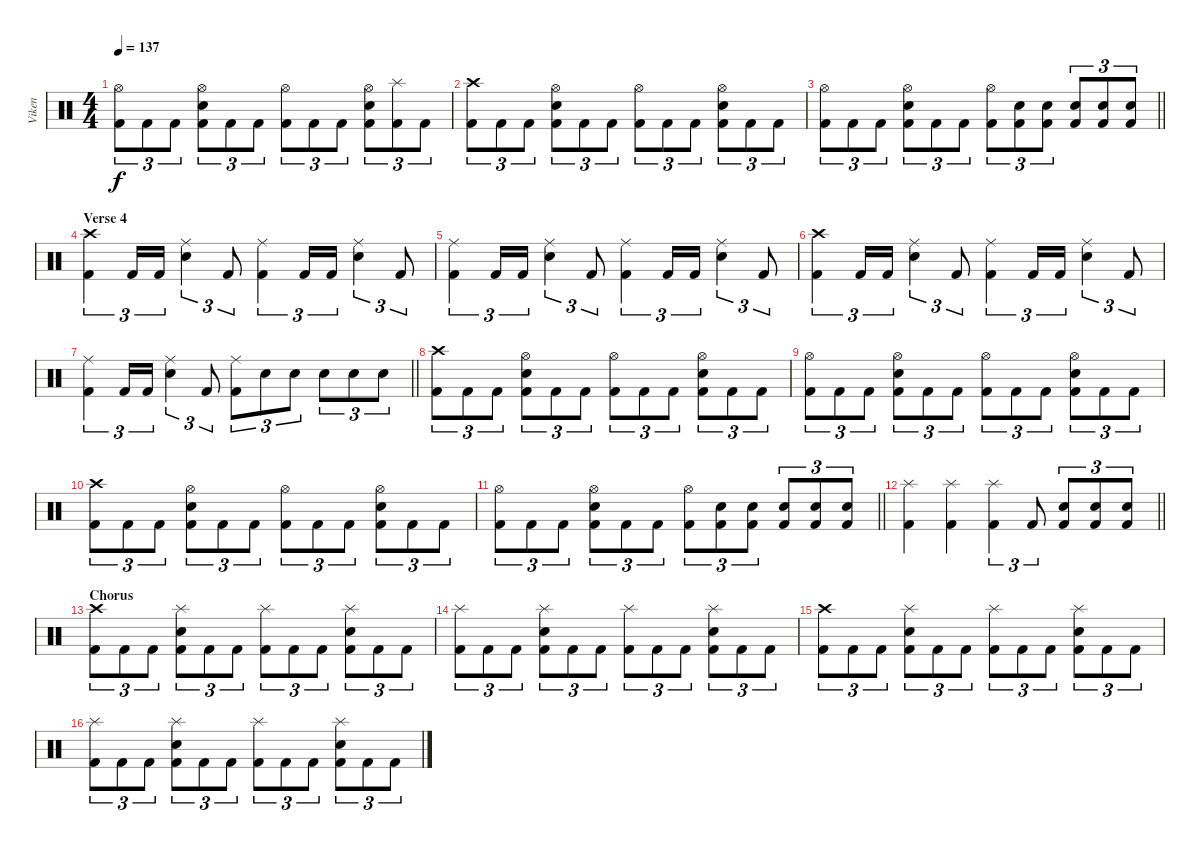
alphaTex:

\track ("Viken" "Viken") {instrument percussion}
\staff {score}
\articulation defaults
\ts (4 4)
\tempo 137
\clef neutral
\ks c
("Hi-Hat (open)" "Kick (hit) 2").8{tu (3 2) dy f} "Kick (hit) 2".8{tu (3 2)} "Kick (hit) 2".8{tu (3 2)} ("Hi-Hat (open)" "Electric Snare (hit)" "Kick (hit) 2").8{tu (3 2)} "Kick (hit) 2".8{tu (3 2)} "Kick (hit) 2".8{tu (3 2)} ("Hi-Hat (open)" "Kick (hit) 2").8{tu (3 2)} "Kick (hit) 2".8{tu (3 2)} "Kick (hit) 2".8{tu (3 2)} ("Hi-Hat (open)" "Electric Snare (hit)" "Kick (hit) 2").8{tu (3 2)} ("Splash (hit)" "Kick (hit) 2").8{tu (3 2)} "Kick (hit) 2".8{tu (3 2)} |
("Crash high (hit)" "Kick (hit) 2").8{tu (3 2)} "Kick (hit) 2".8{tu (3 2)} "Kick (hit) 2".8{tu (3 2)} ("Hi-Hat (open)" "Electric Snare (hit)" "Kick (hit) 2").8{tu (3 2)} "Kick (hit) 2".8{tu (3 2)} "Kick (hit) 2".8{tu (3 2)} ("Hi-Hat (open)" "Kick (hit) 2").8{tu (3 2)} "Kick (hit) 2".8{tu (3 2)} "Kick (hit) 2".8{tu (3 2)} ("Hi-Hat (open)" "Electric Snare (hit)" "Kick (hit) 2").8{tu (3 2)} "Kick (hit) 2".8{tu (3 2)} "Kick (hit) 2".8{tu (3 2)} |
\barLineRight lightlight
("Hi-Hat (open)" "Kick (hit) 2").8{tu (3 2)} "Kick (hit) 2".8{tu (3 2)} "Kick (hit) 2".8{tu (3 2)} ("Hi-Hat (open)" "Electric Snare (hit)" "Kick (hit) 2").8{tu (3 2)} "Kick (hit) 2".8{tu (3 2)} "Kick (hit) 2".8{tu (3 2)} ("Hi-Hat (open)" "Kick (hit) 2").8{tu (3 2)} ("Electric Snare (hit)" "Kick (hit) 2").8{tu (3 2)} ("Electric Snare (hit)" "Kick (hit) 2").8{tu (3 2)} ("Electric Snare (hit)" "Kick (hit) 2").8{tu (3 2)} ("Electric Snare (hit)" "Kick (hit) 2").8{tu (3 2)} ("Electric Snare (hit)" "Kick (hit) 2").8{tu (3 2)} |
\section ("" "Verse 4")
("Crash high (hit)" "Kick (hit) 2").4{tu (3 2)} "Kick (hit) 2".16{tu (3 2)} "Kick (hit) 2".16{tu (3 2)} ("Ride (middle)" "Electric Snare (hit)").4{tu (3 2)} "Kick (hit) 2".8{tu (3 2)} ("Ride (middle)" "Kick (hit) 2").4{tu (3 2)} "Kick (hit) 2".16{tu (3 2)} "Kick (hit) 2".16{tu (3 2)} ("Ride (middle)" "Electric Snare (hit)").4{tu (3 2)} "Kick (hit) 2".8{tu (3 2)} |
("Ride (middle)" "Kick (hit) 2").4{tu (3 2)} "Kick (hit) 2".16{tu (3 2)} "Kick (hit) 2".16{tu (3 2)} ("Ride (middle)" "Electric Snare (hit)").4{tu (3 2)} "Kick (hit) 2".8{tu (3 2)} ("Ride (middle)" "Kick (hit) 2").4{tu (3 2)} "Kick (hit) 2".16{tu (3 2)} "Kick (hit) 2".16{tu (3 2)} ("Ride (middle)" "Electric Snare (hit)").4{tu (3 2)} "Kick (hit) 2".8{tu (3 2)} |
("Crash high (hit)" "Kick (hit) 2").4{tu (3 2)} "Kick (hit) 2".16{tu (3 2)} "Kick (hit) 2".16{tu (3 2)} ("Ride (middle)" "Electric Snare (hit)").4{tu (3 2)} "Kick (hit) 2".8{tu (3 2)} ("Ride (middle)" "Kick (hit) 2").4{tu (3 2)} "Kick (hit) 2".16{tu (3 2)} "Kick (hit) 2".16{tu (3 2)} ("Ride (middle)" "Electric Snare (hit)").4{tu (3 2)} "Kick (hit) 2".8{tu (3 2)} |
\barLineRight lightlight
("Ride (middle)" "Kick (hit) 2").4{tu (3 2)} "Kick (hit) 2".16{tu (3 2)} "Kick (hit) 2".16{tu (3 2)} ("Ride (middle)" "Electric Snare (hit)").4{tu (3 2)} "Kick (hit) 2".8{tu (3 2)} ("Ride (middle)" "Kick (hit) 2").8{tu (3 2)} "Electric Snare (hit)".8{tu (3 2)} "Electric Snare (hit)".8{tu (3 2)} "Electric Snare (hit)".8{tu (3 2)} "Electric Snare (hit)".8{tu (3 2)} "Electric Snare (hit)".8{tu (3 2)} |
\section ("" "")
("Crash high (hit)" "Kick (hit) 2").8{tu (3 2)} "Kick (hit) 2".8{tu (3 2)} "Kick (hit) 2".8{tu (3 2)} ("Hi-Hat (open)" "Electric Snare (hit)" "Kick (hit) 2").8{tu (3 2)} "Kick (hit) 2".8{tu (3 2)} "Kick (hit) 2".8{tu (3 2)} ("Hi-Hat (open)" "Kick (hit) 2").8{tu (3 2)} "Kick (hit) 2".8{tu (3 2)} "Kick (hit) 2".8{tu (3 2)} ("Hi-Hat (open)" "Electric Snare (hit)" "Kick (hit) 2").8{tu (3 2)} "Kick (hit) 2".8{tu (3 2)} "Kick (hit) 2".8{tu (3 2)} |
("Hi-Hat (open)" "Kick (hit) 2").8{tu (3 2)} "Kick (hit) 2".8{tu (3 2)} "Kick (hit) 2".8{tu (3 2)} ("Hi-Hat (open)" "Electric Snare (hit)" "Kick (hit) 2").8{tu (3 2)} "Kick (hit) 2".8{tu (3 2)} "Kick (hit) 2".8{tu (3 2)} ("Hi-Hat (open)" "Kick (hit) 2").8{tu (3 2)} "Kick (hit) 2".8{tu (3 2)} "Kick (hit) 2".8{tu (3 2)} ("Hi-Hat (open)" "Electric Snare (hit)" "Kick (hit) 2").8{tu (3 2)} "Kick (hit) 2".8{tu (3 2)} "Kick (hit) 2".8{tu (3 2)} |
("Crash high (hit)" "Kick (hit) 2").8{tu (3 2)} "Kick (hit) 2".8{tu (3 2)} "Kick (hit) 2".8{tu (3 2)} ("Hi-Hat (open)" "Electric Snare (hit)" "Kick (hit) 2").8{tu (3 2)} "Kick (hit) 2".8{tu (3 2)} "Kick (hit) 2".8{tu (3 2)} ("Hi-Hat (open)" "Kick (hit) 2").8{tu (3 2)} "Kick (hit) 2".8{tu (3 2)} "Kick (hit) 2".8{tu (3 2)} ("Hi-Hat (open)" "Electric Snare (hit)" "Kick (hit) 2").8{tu (3 2)} "Kick (hit) 2".8{tu (3 2)} "Kick (hit) 2".8{tu (3 2)} |
\barLineRight lightlight
("Hi-Hat (open)" "Kick (hit) 2").8{tu (3 2)} "Kick (hit) 2".8{tu (3 2)} "Kick (hit) 2".8{tu (3 2)} ("Hi-Hat (open)" "Electric Snare (hit)" "Kick (hit) 2").8{tu (3 2)} "Kick (hit) 2".8{tu (3 2)} "Kick (hit) 2".8{tu (3 2)} ("Hi-Hat (open)" "Kick (hit) 2").8{tu (3 2)} ("Electric Snare (hit)" "Kick (hit) 2").8{tu (3 2)} ("Electric Snare (hit)" "Kick (hit) 2").8{tu (3 2)} ("Electric Snare (hit)" "Kick (hit) 2").8{tu (3 2)} ("Electric Snare (hit)" "Kick (hit) 2").8{tu (3 2)} ("Electric Snare (hit)" "Kick (hit) 2").8{tu (3 2)} |
\barLineRight lightlight
("Splash (hit)" "Kick (hit) 2").4 ("Splash (hit)" "Kick (hit) 2").4 ("Splash (hit)" "Kick (hit) 2").4{tu (3 2)} "Kick (hit) 2".8{tu (3 2)} ("Electric Snare (hit)" "Kick (hit) 2").8{tu (3 2)} ("Electric Snare (hit)" "Kick (hit) 2").8{tu (3 2)} ("Electric Snare (hit)" "Kick (hit) 2").8{tu (3 2)} |
\section ("" "Chorus")
("Crash high (hit)" "Kick (hit) 2").8{tu (3 2)} "Kick (hit) 2".8{tu (3 2)} "Kick (hit) 2".8{tu (3 2)} ("Splash (hit)" "Electric Snare (hit)" "Kick (hit) 2").8{tu (3 2)} "Kick (hit) 2".8{tu (3 2)} "Kick (hit) 2".8{tu (3 2)} ("Splash (hit)" "Kick (hit) 2").8{tu (3 2)} "Kick (hit) 2".8{tu (3 2)} "Kick (hit) 2".8{tu (3 2)} ("Splash (hit)" "Electric Snare (hit)" "Kick (hit) 2").8{tu (3 2)} "Kick (hit) 2".8{tu (3 2)} "Kick (hit) 2".8{tu (3 2)} |
("Splash (hit)" "Kick (hit) 2").8{tu (3 2)} "Kick (hit) 2".8{tu (3 2)} "Kick (hit) 2".8{tu (3 2)} ("Splash (hit)" "Electric Snare (hit)" "Kick (hit) 2").8{tu (3 2)} "Kick (hit) 2".8{tu (3 2)} "Kick (hit) 2".8{tu (3 2)} ("Splash (hit)" "Kick (hit) 2").8{tu (3 2)} "Kick (hit) 2".8{tu (3 2)} "Kick (hit) 2".8{tu (3 2)} ("Splash (hit)" "Electric Snare (hit)" "Kick (hit) 2").8{tu (3 2)} "Kick (hit) 2".8{tu (3 2)} "Kick (hit) 2".8{tu (3 2)} |
("Crash high (hit)" "Kick (hit) 2").8{tu (3 2)} "Kick (hit) 2".8{tu (3 2)} "Kick (hit) 2".8{tu (3 2)} ("Splash (hit)" "Electric Snare (hit)" "Kick (hit) 2").8{tu (3 2)} "Kick (hit) 2".8{tu (3 2)} "Kick (hit) 2".8{tu (3 2)} ("Splash (hit)" "Kick (hit) 2").8{tu (3 2)} "Kick (hit) 2".8{tu (3 2)} "Kick (hit) 2".8{tu (3 2)} ("Splash (hit)" "Electric Snare (hit)" "Kick (hit) 2").8{tu (3 2)} "Kick (hit) 2".8{tu (3 2)} "Kick (hit) 2".8{tu (3 2)} |
("Splash (hit)" "Kick (hit) 2").8{tu (3 2)} "Kick (hit) 2".8{tu (3 2)} "Kick (hit) 2".8{tu (3 2)} ("Splash (hit)" "Electric Snare (hit)" "Kick (hit) 2").8{tu (3 2)} "Kick (hit) 2".8{tu (3 2)} "Kick (hit) 2".8{tu (3 2)} ("Splash (hit)" "Kick (hit) 2").8{tu (3 2)} "Kick (hit) 2".8{tu (3 2)} "Kick (hit) 2".8{tu (3 2)} ("Splash (hit)" "Electric Snare (hit)" "Kick (hit) 2").8{tu (3 2)} "Kick (hit) 2".8{tu (3 2)} "Kick (hit) 2".8{tu (3 2)}
